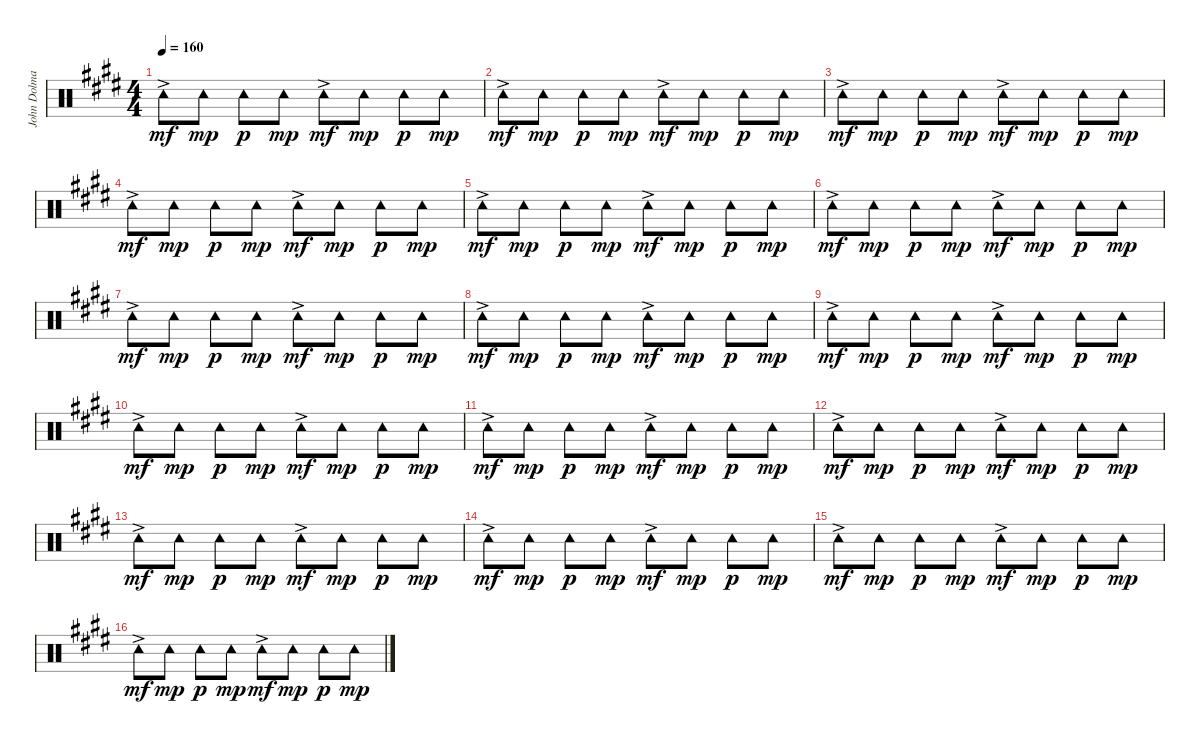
\track ("John Dolmayan [Tambourine]" "John Dolma") {instrument percussion}
\staff {score}
\articulation defaults
\ts (4 4)
\tempo 160
\clef neutral
\ks c#minor "Tambourine (hit)"{ac}.8{dy mf} "Tambourine (hit)".8{dy mp} "Tambourine (hit)".8{dy p} "Tambourine (hit)".8{dy mp} "Tambourine (hit)"{ac}.8{dy mf} "Tambourine (hit)".8{dy mp} "Tambourine (hit)".8{dy p} "Tambourine (hit)".8{dy mp}
|
"Tambourine (hit)"{ac}.8{dy mf} "Tambourine (hit)".8{dy mp} "Tambourine (hit)".8{dy p} "Tambourine (hit)".8{dy mp} "Tambourine (hit)"{ac}.8{dy mf} "Tambourine (hit)".8{dy mp} "Tambourine (hit)".8{dy p} "Tambourine (hit)".8{dy mp} |
"Tambourine (hit)"{ac}.8{dy mf} "Tambourine (hit)".8{dy mp} "Tambourine (hit)".8{dy p} "Tambourine (hit)".8{dy mp} "Tambourine (hit)"{ac}.8{dy mf} "Tambourine (hit)".8{dy mp} "Tambourine (hit)".8{dy p} "Tambourine (hit)".8{dy mp} |
"Tambourine (hit)"{ac}.8{dy mf} "Tambourine (hit)".8{dy mp} "Tambourine (hit)".8{dy p} "Tambourine (hit)".8{dy mp} "Tambourine (hit)"{ac}.8{dy mf} "Tambourine (hit)".8{dy mp} "Tambourine (hit)".8{dy p} "Tambourine (hit)".8{dy mp} |
"Tambourine (hit)"{ac}.8{dy mf} "Tambourine (hit)".8{dy mp} "Tambourine (hit)".8{dy p} "Tambourine (hit)".8{dy mp} "Tambourine (hit)"{ac}.8{dy mf} "Tambourine (hit)".8{dy mp} "Tambourine (hit)".8{dy p} "Tambourine (hit)".8{dy mp} |
"Tambourine (hit)"{ac}.8{dy mf} "Tambourine (hit)".8{dy mp} "Tambourine (hit)".8{dy p} "Tambourine (hit)".8{dy mp} "Tambourine (hit)"{ac}.8{dy mf} "Tambourine (hit)".8{dy mp} "Tambourine (hit)".8{dy p} "Tambourine (hit)".8{dy mp} |
"Tambourine (hit)"{ac}.8{dy mf} "Tambourine (hit)".8{dy mp} "Tambourine (hit)".8{dy p} "Tambourine (hit)".8{dy mp} "Tambourine (hit)"{ac}.8{dy mf} "Tambourine (hit)".8{dy mp} "Tambourine (hit)".8{dy p} "Tambourine (hit)".8{dy mp} |
"Tambourine (hit)"{ac}.8{dy mf} "Tambourine (hit)".8{dy mp} "Tambourine (hit)".8{dy p} "Tambourine (hit)".8{dy mp} "Tambourine (hit)"{ac}.8{dy mf} "Tambourine (hit)".8{dy mp} "Tambourine (hit)".8{dy p} "Tambourine (hit)".8{dy mp} |
"Tambourine (hit)"{ac}.8{dy mf} "Tambourine (hit)".8{dy mp} "Tambourine (hit)".8{dy p} "Tambourine (hit)".8{dy mp} "Tambourine (hit)"{ac}.8{dy mf} "Tambourine (hit)".8{dy mp} "Tambourine (hit)".8{dy p} "Tambourine (hit)".8{dy mp} |
"Tambourine (hit)"{ac}.8{dy mf} "Tambourine (hit)".8{dy mp} "Tambourine (hit)".8{dy p} "Tambourine (hit)".8{dy mp} "Tambourine (hit)"{ac}.8{dy mf} "Tambourine (hit)".8{dy mp} "Tambourine (hit)".8{dy p} "Tambourine (hit)".8{dy mp} |
"Tambourine (hit)"{ac}.8{dy mf} "Tambourine (hit)".8{dy mp} "Tambourine (hit)".8{dy p} "Tambourine (hit)".8{dy mp} "Tambourine (hit)"{ac}.8{dy mf} "Tambourine (hit)".8{dy mp} "Tambourine (hit)".8{dy p} "Tambourine (hit)".8{dy mp} |
"Tambourine (hit)"{ac}.8{dy mf} "Tambourine (hit)".8{dy mp} "Tambourine (hit)".8{dy p} "Tambourine (hit)".8{dy mp} "Tambourine (hit)"{ac}.8{dy mf} "Tambourine (hit)".8{dy mp} "Tambourine (hit)".8{dy p} "Tambourine (hit)".8{dy mp} |
"Tambourine (hit)"{ac}.8{dy mf} "Tambourine (hit)".8{dy mp} "Tambourine (hit)".8{dy p} "Tambourine (hit)".8{dy mp} "Tambourine (hit)"{ac}.8{dy mf} "Tambourine (hit)".8{dy mp} "Tambourine (hit)".8{dy p} "Tambourine (hit)".8{dy mp} |
"Tambourine (hit)"{ac}.8{dy mf} "Tambourine (hit)".8{dy mp} "Tambourine (hit)".8{dy p} "Tambourine (hit)".8{dy mp} "Tambourine (hit)"{ac}.8{dy mf} "Tambourine (hit)".8{dy mp} "Tambourine (hit)".8{dy p} "Tambourine (hit)".8{dy mp} |
"Tambourine (hit)"{ac}.8{dy mf} "Tambourine (hit)".8{dy mp} "Tambourine (hit)".8{dy p} "Tambourine (hit)".8{dy mp} "Tambourine (hit)"{ac}.8{dy mf} "Tambourine (hit)".8{dy mp} "Tambourine (hit)".8{dy p} "Tambourine (hit)".8{dy mp} |
"Tambourine (hit)"{ac}.8{dy mf} "Tambourine (hit)".8{dy mp} "Tambourine (hit)".8{dy p} "Tambourine (hit)".8{dy mp} "Tambourine (hit)"{ac}.8{dy mf} "Tambourine (hit)".8{dy mp} "Tambourine (hit)".8{dy p} "Tambourine (hit)".8{dy mp}
